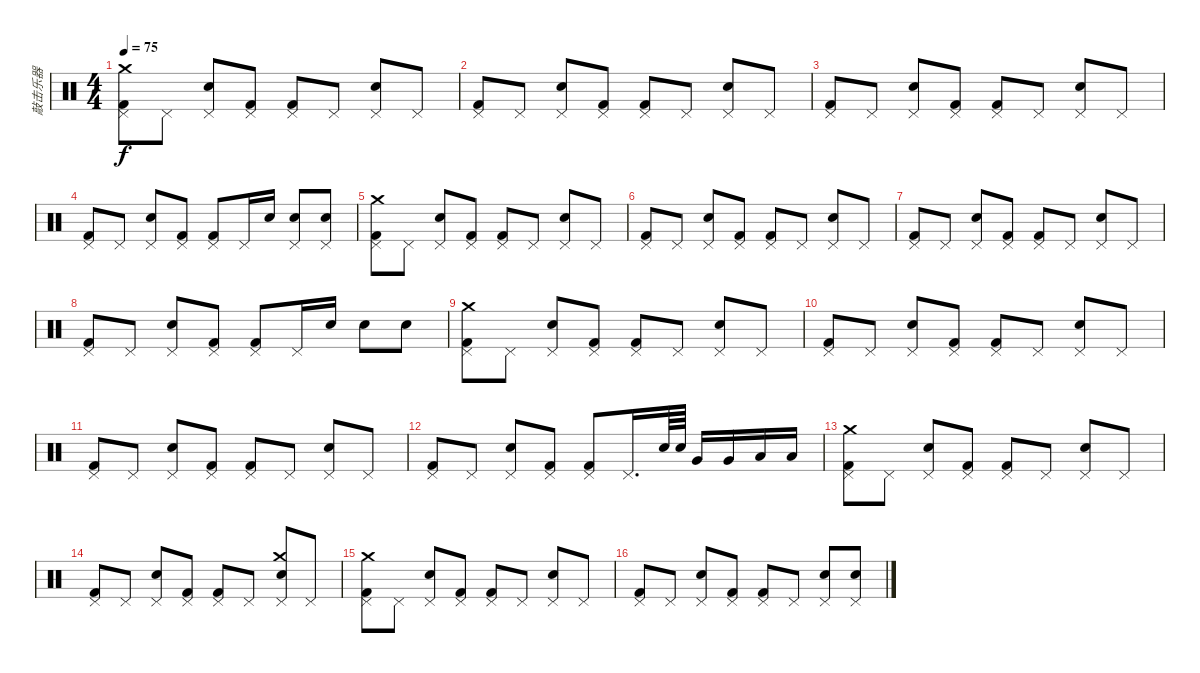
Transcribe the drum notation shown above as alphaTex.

\track ("敲击乐器" "敲击乐器") {instrument percussion}
\staff {score}
\articulation defaults
\ts (4 4)
\tempo 75
\clef neutral
\ks c
("Pedal Hi-Hat (hit)" "Kick (hit) 2" "Crash medium (hit)").8{dy f} "Pedal Hi-Hat (hit)".8 ("Pedal Hi-Hat (hit)" "Electric Snare (hit)").8 ("Pedal Hi-Hat (hit)" "Kick (hit) 2").8 ("Pedal Hi-Hat (hit)" "Kick (hit) 2").8 "Pedal Hi-Hat (hit)".8 ("Pedal Hi-Hat (hit)" "Electric Snare (hit)").8 "Pedal Hi-Hat (hit)".8 |
("Pedal Hi-Hat (hit)" "Kick (hit) 2").8 "Pedal Hi-Hat (hit)".8 ("Pedal Hi-Hat (hit)" "Electric Snare (hit)").8 ("Pedal Hi-Hat (hit)" "Kick (hit) 2").8 ("Pedal Hi-Hat (hit)" "Kick (hit) 2").8 "Pedal Hi-Hat (hit)".8 ("Pedal Hi-Hat (hit)" "Electric Snare (hit)").8 "Pedal Hi-Hat (hit)".8 |
("Pedal Hi-Hat (hit)" "Kick (hit) 2").8 "Pedal Hi-Hat (hit)".8 ("Pedal Hi-Hat (hit)" "Electric Snare (hit)").8 ("Pedal Hi-Hat (hit)" "Kick (hit) 2").8 ("Pedal Hi-Hat (hit)" "Kick (hit) 2").8 "Pedal Hi-Hat (hit)".8 ("Pedal Hi-Hat (hit)" "Electric Snare (hit)").8 "Pedal Hi-Hat (hit)".8 |
("Pedal Hi-Hat (hit)" "Kick (hit) 2").8 "Pedal Hi-Hat (hit)".8 ("Pedal Hi-Hat (hit)" "Electric Snare (hit)").8 ("Pedal Hi-Hat (hit)" "Kick (hit) 2").8 ("Pedal Hi-Hat (hit)" "Kick (hit) 2").8 "Pedal Hi-Hat (hit)".16 "Electric Snare (hit)".16 ("Pedal Hi-Hat (hit)" "Electric Snare (hit)").8 ("Pedal Hi-Hat (hit)" "Electric Snare (hit)").8 |
("Pedal Hi-Hat (hit)" "Kick (hit) 2" "Crash medium (hit)").8 "Pedal Hi-Hat (hit)".8 ("Pedal Hi-Hat (hit)" "Electric Snare (hit)").8 ("Pedal Hi-Hat (hit)" "Kick (hit) 2").8 ("Pedal Hi-Hat (hit)" "Kick (hit) 2").8 "Pedal Hi-Hat (hit)".8 ("Pedal Hi-Hat (hit)" "Electric Snare (hit)").8 "Pedal Hi-Hat (hit)".8 |
("Pedal Hi-Hat (hit)" "Kick (hit) 2").8 "Pedal Hi-Hat (hit)".8 ("Pedal Hi-Hat (hit)" "Electric Snare (hit)").8 ("Pedal Hi-Hat (hit)" "Kick (hit) 2").8 ("Pedal Hi-Hat (hit)" "Kick (hit) 2").8 "Pedal Hi-Hat (hit)".8 ("Pedal Hi-Hat (hit)" "Electric Snare (hit)").8 "Pedal Hi-Hat (hit)".8 |
("Pedal Hi-Hat (hit)" "Kick (hit) 2").8 "Pedal Hi-Hat (hit)".8 ("Pedal Hi-Hat (hit)" "Electric Snare (hit)").8 ("Pedal Hi-Hat (hit)" "Kick (hit) 2").8 ("Pedal Hi-Hat (hit)" "Kick (hit) 2").8 "Pedal Hi-Hat (hit)".8 ("Pedal Hi-Hat (hit)" "Electric Snare (hit)").8 "Pedal Hi-Hat (hit)".8 |
("Pedal Hi-Hat (hit)" "Kick (hit) 2").8 "Pedal Hi-Hat (hit)".8 ("Pedal Hi-Hat (hit)" "Electric Snare (hit)").8 ("Pedal Hi-Hat (hit)" "Kick (hit) 2").8 ("Pedal Hi-Hat (hit)" "Kick (hit) 2").8 "Pedal Hi-Hat (hit)".16 "Electric Snare (hit)".16 "Electric Snare (hit)".8 "Electric Snare (hit)".8 |
("Pedal Hi-Hat (hit)" "Kick (hit) 2" "Crash medium (hit)").8 "Pedal Hi-Hat (hit)".8 ("Pedal Hi-Hat (hit)" "Electric Snare (hit)").8 ("Pedal Hi-Hat (hit)" "Kick (hit) 2").8 ("Pedal Hi-Hat (hit)" "Kick (hit) 2").8 "Pedal Hi-Hat (hit)".8 ("Pedal Hi-Hat (hit)" "Electric Snare (hit)").8 "Pedal Hi-Hat (hit)".8 |
("Pedal Hi-Hat (hit)" "Kick (hit) 2").8 "Pedal Hi-Hat (hit)".8 ("Pedal Hi-Hat (hit)" "Electric Snare (hit)").8 ("Pedal Hi-Hat (hit)" "Kick (hit) 2").8 ("Pedal Hi-Hat (hit)" "Kick (hit) 2").8 "Pedal Hi-Hat (hit)".8 ("Pedal Hi-Hat (hit)" "Electric Snare (hit)").8 "Pedal Hi-Hat (hit)".8 |
("Pedal Hi-Hat (hit)" "Kick (hit) 2").8 "Pedal Hi-Hat (hit)".8 ("Pedal Hi-Hat (hit)" "Electric Snare (hit)").8 ("Pedal Hi-Hat (hit)" "Kick (hit) 2").8 ("Pedal Hi-Hat (hit)" "Kick (hit) 2").8 "Pedal Hi-Hat (hit)".8 ("Pedal Hi-Hat (hit)" "Electric Snare (hit)").8 "Pedal Hi-Hat (hit)".8 |
("Pedal Hi-Hat (hit)" "Kick (hit) 2").8 "Pedal Hi-Hat (hit)".8 ("Pedal Hi-Hat (hit)" "Electric Snare (hit)").8 ("Pedal Hi-Hat (hit)" "Kick (hit) 2").8 ("Pedal Hi-Hat (hit)" "Kick (hit) 2").8 "Pedal Hi-Hat (hit)".16{d} "Electric Snare (hit)".64 "Electric Snare (hit)".64 "Very Low Tom (hit)".16 "Very Low Tom (hit)".16 "Low Tom (hit)".16 "Low Tom (hit)".16 |
("Pedal Hi-Hat (hit)" "Kick (hit) 2" "Crash medium (hit)").8 "Pedal Hi-Hat (hit)".8 ("Pedal Hi-Hat (hit)" "Electric Snare (hit)").8 ("Pedal Hi-Hat (hit)" "Kick (hit) 2").8 ("Pedal Hi-Hat (hit)" "Kick (hit) 2").8 "Pedal Hi-Hat (hit)".8 ("Pedal Hi-Hat (hit)" "Electric Snare (hit)").8 "Pedal Hi-Hat (hit)".8 |
("Pedal Hi-Hat (hit)" "Kick (hit) 2").8 "Pedal Hi-Hat (hit)".8 ("Pedal Hi-Hat (hit)" "Electric Snare (hit)").8 ("Pedal Hi-Hat (hit)" "Kick (hit) 2").8 ("Pedal Hi-Hat (hit)" "Kick (hit) 2").8 "Pedal Hi-Hat (hit)".8 ("Pedal Hi-Hat (hit)" "Electric Snare (hit)" "Crash medium (hit)").8 "Pedal Hi-Hat (hit)".8 |
("Pedal Hi-Hat (hit)" "Kick (hit) 2" "Crash medium (hit)").8 "Pedal Hi-Hat (hit)".8 ("Pedal Hi-Hat (hit)" "Electric Snare (hit)").8 ("Pedal Hi-Hat (hit)" "Kick (hit) 2").8 ("Pedal Hi-Hat (hit)" "Kick (hit) 2").8 "Pedal Hi-Hat (hit)".8 ("Pedal Hi-Hat (hit)" "Electric Snare (hit)").8 "Pedal Hi-Hat (hit)".8 |
("Pedal Hi-Hat (hit)" "Kick (hit) 2").8 "Pedal Hi-Hat (hit)".8 ("Pedal Hi-Hat (hit)" "Electric Snare (hit)").8 ("Pedal Hi-Hat (hit)" "Kick (hit) 2").8 ("Pedal Hi-Hat (hit)" "Kick (hit) 2").8 "Pedal Hi-Hat (hit)".8 ("Pedal Hi-Hat (hit)" "Electric Snare (hit)").8 ("Pedal Hi-Hat (hit)" "Electric Snare (hit)").8
